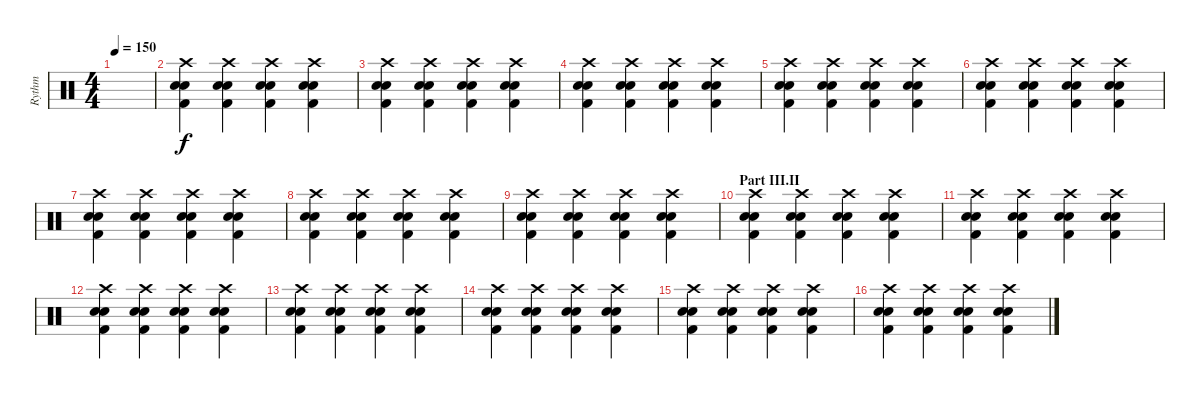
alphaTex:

\track ("Rythm" "Rythm") {instrument percussion}
\staff {score}
\articulation defaults
\ts (4 4)
\tempo 150
\clef neutral
\ks c
|
("Electric Snare (hit)" "Kick (hit) 2" "Snare (hit) 2" "Crash high (hit)").4 ("Electric Snare (hit)" "Kick (hit) 2" "Snare (hit) 2" "Crash high (hit)").4 ("Electric Snare (hit)" "Kick (hit) 2" "Snare (hit) 2" "Crash high (hit)").4 ("Electric Snare (hit)" "Kick (hit) 2" "Snare (hit) 2" "Crash high (hit)").4 |
("Electric Snare (hit)" "Kick (hit) 2" "Snare (hit) 2" "Crash high (hit)").4 ("Electric Snare (hit)" "Kick (hit) 2" "Snare (hit) 2" "Crash high (hit)").4 ("Electric Snare (hit)" "Kick (hit) 2" "Snare (hit) 2" "Crash high (hit)").4 ("Electric Snare (hit)" "Kick (hit) 2" "Snare (hit) 2" "Crash high (hit)").4 |
("Electric Snare (hit)" "Kick (hit) 2" "Snare (hit) 2" "Crash high (hit)").4 ("Electric Snare (hit)" "Kick (hit) 2" "Snare (hit) 2" "Crash high (hit)").4 ("Electric Snare (hit)" "Kick (hit) 2" "Snare (hit) 2" "Crash high (hit)").4 ("Electric Snare (hit)" "Kick (hit) 2" "Snare (hit) 2" "Crash high (hit)").4 |
("Electric Snare (hit)" "Kick (hit) 2" "Snare (hit) 2" "Crash high (hit)").4 ("Electric Snare (hit)" "Kick (hit) 2" "Snare (hit) 2" "Crash high (hit)").4 ("Electric Snare (hit)" "Kick (hit) 2" "Snare (hit) 2" "Crash high (hit)").4 ("Electric Snare (hit)" "Kick (hit) 2" "Snare (hit) 2" "Crash high (hit)").4 |
("Electric Snare (hit)" "Kick (hit) 2" "Snare (hit) 2" "Crash high (hit)").4 ("Electric Snare (hit)" "Kick (hit) 2" "Snare (hit) 2" "Crash high (hit)").4 ("Electric Snare (hit)" "Kick (hit) 2" "Snare (hit) 2" "Crash high (hit)").4 ("Electric Snare (hit)" "Kick (hit) 2" "Snare (hit) 2" "Crash high (hit)").4 |
("Electric Snare (hit)" "Kick (hit) 2" "Snare (hit) 2" "Crash high (hit)").4 ("Electric Snare (hit)" "Kick (hit) 2" "Snare (hit) 2" "Crash high (hit)").4 ("Electric Snare (hit)" "Kick (hit) 2" "Snare (hit) 2" "Crash high (hit)").4 ("Electric Snare (hit)" "Kick (hit) 2" "Snare (hit) 2" "Crash high (hit)").4 |
("Electric Snare (hit)" "Kick (hit) 2" "Snare (hit) 2" "Crash high (hit)").4 ("Electric Snare (hit)" "Kick (hit) 2" "Snare (hit) 2" "Crash high (hit)").4 ("Electric Snare (hit)" "Kick (hit) 2" "Snare (hit) 2" "Crash high (hit)").4 ("Electric Snare (hit)" "Kick (hit) 2" "Snare (hit) 2" "Crash high (hit)").4 |
("Electric Snare (hit)" "Kick (hit) 2" "Snare (hit) 2" "Crash high (hit)").4 ("Electric Snare (hit)" "Kick (hit) 2" "Snare (hit) 2" "Crash high (hit)").4 ("Electric Snare (hit)" "Kick (hit) 2" "Snare (hit) 2" "Crash high (hit)").4 ("Electric Snare (hit)" "Kick (hit) 2" "Snare (hit) 2" "Crash high (hit)").4 |
\section ("" "Part III.II")
("Electric Snare (hit)" "Kick (hit) 2" "Snare (hit) 2" "Crash high (hit)").4 ("Electric Snare (hit)" "Kick (hit) 2" "Snare (hit) 2" "Crash high (hit)").4 ("Electric Snare (hit)" "Kick (hit) 2" "Snare (hit) 2" "Crash high (hit)").4 ("Electric Snare (hit)" "Kick (hit) 2" "Snare (hit) 2" "Crash high (hit)").4 |
("Electric Snare (hit)" "Kick (hit) 2" "Snare (hit) 2" "Crash high (hit)").4 ("Electric Snare (hit)" "Kick (hit) 2" "Snare (hit) 2" "Crash high (hit)").4 ("Electric Snare (hit)" "Kick (hit) 2" "Snare (hit) 2" "Crash high (hit)").4 ("Electric Snare (hit)" "Kick (hit) 2" "Snare (hit) 2" "Crash high (hit)").4 |
("Electric Snare (hit)" "Kick (hit) 2" "Snare (hit) 2" "Crash high (hit)").4 ("Electric Snare (hit)" "Kick (hit) 2" "Snare (hit) 2" "Crash high (hit)").4 ("Electric Snare (hit)" "Kick (hit) 2" "Snare (hit) 2" "Crash high (hit)").4 ("Electric Snare (hit)" "Kick (hit) 2" "Snare (hit) 2" "Crash high (hit)").4 |
("Electric Snare (hit)" "Kick (hit) 2" "Snare (hit) 2" "Crash high (hit)").4 ("Electric Snare (hit)" "Kick (hit) 2" "Snare (hit) 2" "Crash high (hit)").4 ("Electric Snare (hit)" "Kick (hit) 2" "Snare (hit) 2" "Crash high (hit)").4 ("Electric Snare (hit)" "Kick (hit) 2" "Snare (hit) 2" "Crash high (hit)").4 |
("Electric Snare (hit)" "Kick (hit) 2" "Snare (hit) 2" "Crash high (hit)").4 ("Electric Snare (hit)" "Kick (hit) 2" "Snare (hit) 2" "Crash high (hit)").4 ("Electric Snare (hit)" "Kick (hit) 2" "Snare (hit) 2" "Crash high (hit)").4 ("Electric Snare (hit)" "Kick (hit) 2" "Snare (hit) 2" "Crash high (hit)").4 |
("Electric Snare (hit)" "Kick (hit) 2" "Snare (hit) 2" "Crash high (hit)").4 ("Electric Snare (hit)" "Kick (hit) 2" "Snare (hit) 2" "Crash high (hit)").4 ("Electric Snare (hit)" "Kick (hit) 2" "Snare (hit) 2" "Crash high (hit)").4 ("Electric Snare (hit)" "Kick (hit) 2" "Snare (hit) 2" "Crash high (hit)").4 |
("Electric Snare (hit)" "Kick (hit) 2" "Snare (hit) 2" "Crash high (hit)").4 ("Electric Snare (hit)" "Kick (hit) 2" "Snare (hit) 2" "Crash high (hit)").4 ("Electric Snare (hit)" "Kick (hit) 2" "Snare (hit) 2" "Crash high (hit)").4 ("Electric Snare (hit)" "Kick (hit) 2" "Snare (hit) 2" "Crash high (hit)").4
